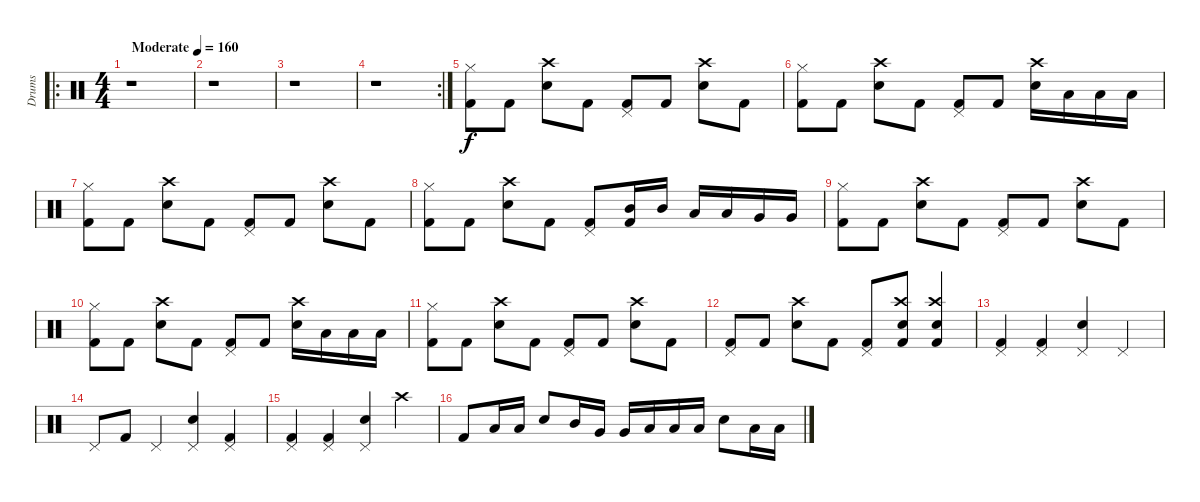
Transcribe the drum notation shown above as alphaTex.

\track ("Drums" "Drums") {instrument percussion}
\staff {score}
\articulation defaults
\ro
\ts (4 4)
\tempo (160 "Moderate")
\clef neutral
\ks c
r.1{dy f} |
r.1 |
r.1 |
\rc 2
r.1 |
("Hi-Hat (closed)" "Kick (hit) 2").8 "Kick (hit) 2".8 ("Crash high (hit)" "Snare (hit) 2").8 "Kick (hit) 2".8 ("Pedal Hi-Hat (hit)" "Kick (hit) 2").8 "Kick (hit) 2".8 ("Crash high (hit)" "Snare (hit) 2").8 "Kick (hit) 2".8 |
("Hi-Hat (closed)" "Kick (hit) 2").8 "Kick (hit) 2".8 ("Crash high (hit)" "Snare (hit) 2").8 "Kick (hit) 2".8 ("Pedal Hi-Hat (hit)" "Kick (hit) 2").8 "Kick (hit) 2".8 ("Crash high (hit)" "Snare (hit) 2").16 "Low Tom (hit)".16 "Low Tom (hit)".16 "Low Tom (hit)".16 |
("Hi-Hat (closed)" "Kick (hit) 2").8 "Kick (hit) 2".8 ("Crash high (hit)" "Snare (hit) 2").8 "Kick (hit) 2".8 ("Pedal Hi-Hat (hit)" "Kick (hit) 2").8 "Kick (hit) 2".8 ("Crash high (hit)" "Snare (hit) 2").8 "Kick (hit) 2".8 |
("Hi-Hat (closed)" "Kick (hit) 2").8 "Kick (hit) 2".8 ("Crash high (hit)" "Snare (hit) 2").8 "Kick (hit) 2".8 ("Pedal Hi-Hat (hit)" "Kick (hit) 2").8 ("Mid Tom (hit)" "Kick (hit) 2").16 "Mid Tom (hit)".16 "Low Tom (hit)".16 "Low Tom (hit)".16 "Very Low Tom (hit)".16 "Very Low Tom (hit)".16 |
("Hi-Hat (closed)" "Kick (hit) 2").8 "Kick (hit) 2".8 ("Crash high (hit)" "Snare (hit) 2").8 "Kick (hit) 2".8 ("Pedal Hi-Hat (hit)" "Kick (hit) 2").8 "Kick (hit) 2".8 ("Crash high (hit)" "Snare (hit) 2").8 "Kick (hit) 2".8 |
("Hi-Hat (closed)" "Kick (hit) 2").8 "Kick (hit) 2".8 ("Crash high (hit)" "Snare (hit) 2").8 "Kick (hit) 2".8 ("Pedal Hi-Hat (hit)" "Kick (hit) 2").8 "Kick (hit) 2".8 ("Crash high (hit)" "Snare (hit) 2").16 "Low Tom (hit)".16 "Low Tom (hit)".16 "Low Tom (hit)".16 |
("Hi-Hat (closed)" "Kick (hit) 2").8 "Kick (hit) 2".8 ("Crash high (hit)" "Snare (hit) 2").8 "Kick (hit) 2".8 ("Pedal Hi-Hat (hit)" "Kick (hit) 2").8 "Kick (hit) 2".8 ("Crash high (hit)" "Snare (hit) 2").8 "Kick (hit) 2".8 |
("Pedal Hi-Hat (hit)" "Kick (hit) 2").8 "Kick (hit) 2".8 ("Crash high (hit)" "Snare (hit) 2").8 "Kick (hit) 2".8 ("Pedal Hi-Hat (hit)" "Kick (hit) 2").8 ("Crash high (hit)" "Snare (hit) 2" "Kick (hit) 2").8 ("Crash high (hit)" "Snare (hit) 2" "Kick (hit) 2").4 |
("Pedal Hi-Hat (hit)" "Kick (hit) 2").4 ("Pedal Hi-Hat (hit)" "Kick (hit) 2").4 ("Pedal Hi-Hat (hit)" "Snare (hit) 2").4 "Pedal Hi-Hat (hit)".4 |
"Pedal Hi-Hat (hit)".8 "Kick (hit) 2".8 "Pedal Hi-Hat (hit)".4 ("Pedal Hi-Hat (hit)" "Snare (hit) 2").4 ("Pedal Hi-Hat (hit)" "Kick (hit) 2").4 |
("Pedal Hi-Hat (hit)" "Kick (hit) 2").4 ("Pedal Hi-Hat (hit)" "Kick (hit) 2").4 ("Pedal Hi-Hat (hit)" "Snare (hit) 2").4 "Crash high (hit)".4 |
"Kick (hit) 2".8 "Low Tom (hit)".16 "Low Tom (hit)".16 "Snare (hit) 2".8 "Mid Tom (hit)".16 "Very Low Tom (hit)".16 "Very Low Tom (hit)".16 "Low Tom (hit)".16 "Low Tom (hit)".16 "Low Floor Tom (hit)".16 "Snare (hit) 2".8 "Low Floor Tom (hit)".16 "Low Floor Tom (hit)".16
